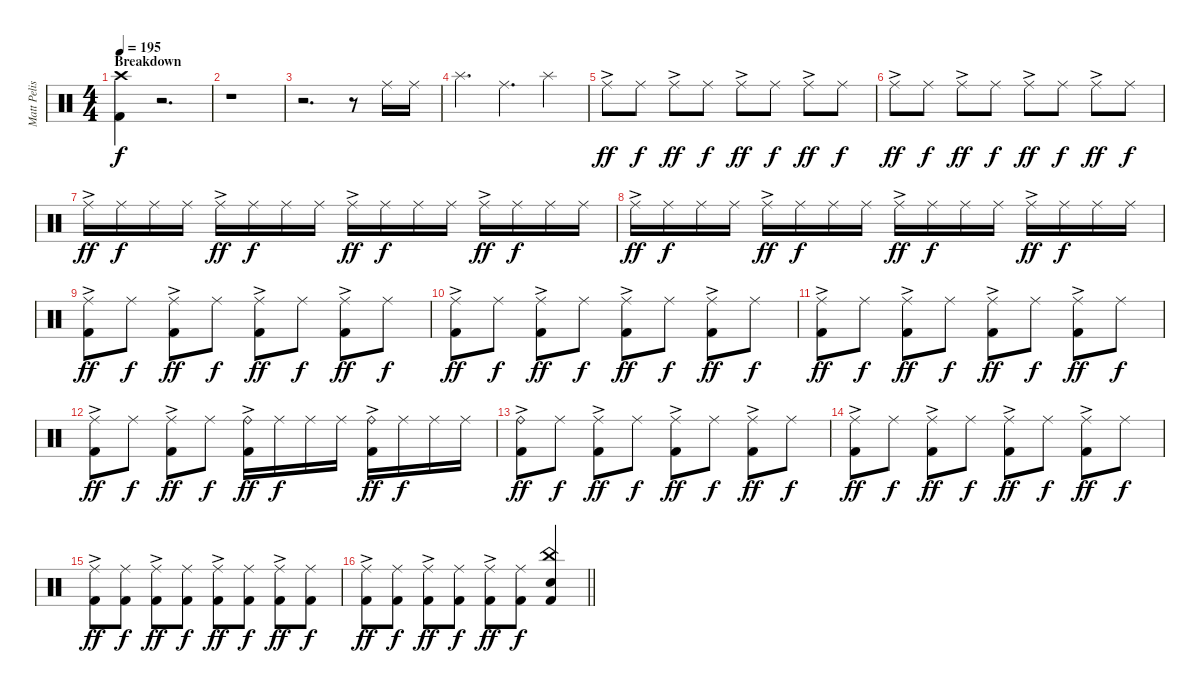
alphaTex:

\track ("Matt Pelissier" "Matt Pelis") {instrument percussion}
\staff {score}
\articulation defaults
\ts (4 4)
\section ("" "Breakdown")
\tempo 195
\clef neutral
\ks c
("Crash high (hit)" "Kick (hit) 2").4{dy f} r.2{d} |
r.1 |
r.2{d} r.8 "Ride (middle)".16 "Ride (middle)".16 |
"Splash (hit)".4{d} "Ride (middle)".4{d} "Splash (hit)".4 |
"Ride (middle)"{ac}.8{dy ff} "Ride (middle)".8{dy f} "Ride (middle)"{ac}.8{dy ff} "Ride (middle)".8{dy f} "Ride (middle)"{ac}.8{dy ff} "Ride (middle)".8{dy f} "Ride (middle)"{ac}.8{dy ff} "Ride (middle)".8{dy f} |
"Ride (middle)"{ac}.8{dy ff} "Ride (middle)".8{dy f} "Ride (middle)"{ac}.8{dy ff} "Ride (middle)".8{dy f} "Ride (middle)"{ac}.8{dy ff} "Ride (middle)".8{dy f} "Ride (middle)"{ac}.8{dy ff} "Ride (middle)".8{dy f} |
"Ride (middle)"{ac}.16{dy ff} "Ride (middle)".16{dy f} "Ride (middle)".16 "Ride (middle)".16 "Ride (middle)"{ac}.16{dy ff} "Ride (middle)".16{dy f} "Ride (middle)".16 "Ride (middle)".16 "Ride (middle)"{ac}.16{dy ff} "Ride (middle)".16{dy f} "Ride (middle)".16 "Ride (middle)".16 "Ride (middle)"{ac}.16{dy ff} "Ride (middle)".16{dy f} "Ride (middle)".16 "Ride (middle)".16 |
"Ride (middle)"{ac}.16{dy ff} "Ride (middle)".16{dy f} "Ride (middle)".16 "Ride (middle)".16 "Ride (middle)"{ac}.16{dy ff} "Ride (middle)".16{dy f} "Ride (middle)".16 "Ride (middle)".16 "Ride (middle)"{ac}.16{dy ff} "Ride (middle)".16{dy f} "Ride (middle)".16 "Ride (middle)".16 "Ride (middle)"{ac}.16{dy ff} "Ride (middle)".16{dy f} "Ride (middle)".16 "Ride (middle)".16 |
("Ride (middle)"{ac} "Kick (hit) 2").8{dy ff} "Ride (middle)".8{dy f} ("Ride (middle)"{ac} "Kick (hit) 2").8{dy ff} "Ride (middle)".8{dy f} ("Ride (middle)"{ac} "Kick (hit) 2").8{dy ff} "Ride (middle)".8{dy f} ("Ride (middle)"{ac} "Kick (hit) 2").8{dy ff} "Ride (middle)".8{dy f} |
("Ride (middle)"{ac} "Kick (hit) 2").8{dy ff} "Ride (middle)".8{dy f} ("Ride (middle)"{ac} "Kick (hit) 2").8{dy ff} "Ride (middle)".8{dy f} ("Ride (middle)"{ac} "Kick (hit) 2").8{dy ff} "Ride (middle)".8{dy f} ("Ride (middle)"{ac} "Kick (hit) 2").8{dy ff} "Ride (middle)".8{dy f} |
("Ride (middle)"{ac} "Kick (hit) 2").8{dy ff} "Ride (middle)".8{dy f} ("Ride (middle)"{ac} "Kick (hit) 2").8{dy ff} "Ride (middle)".8{dy f} ("Ride (middle)"{ac} "Kick (hit) 2").8{dy ff} "Ride (middle)".8{dy f} ("Ride (middle)"{ac} "Kick (hit) 2").8{dy ff} "Ride (middle)".8{dy f} |
("Ride (middle)"{ac} "Kick (hit) 2").8{dy ff} "Ride (middle)".8{dy f} ("Ride (middle)"{ac} "Kick (hit) 2").8{dy ff} "Ride (middle)".8{dy f} ("Ride (bell)"{ac} "Kick (hit) 2").16{dy ff} "Ride (middle)".16{dy f} "Ride (middle)".16 "Ride (middle)".16 ("Ride (bell)"{ac} "Kick (hit) 2").16{dy ff} "Ride (middle)".16{dy f} "Ride (middle)".16 "Ride (middle)".16 |
("Ride (bell)"{ac} "Kick (hit) 2").8{dy ff} "Ride (middle)".8{dy f} ("Ride (middle)"{ac} "Kick (hit) 2").8{dy ff} "Ride (middle)".8{dy f} ("Ride (middle)"{ac} "Kick (hit) 2").8{dy ff} "Ride (middle)".8{dy f} ("Ride (middle)"{ac} "Kick (hit) 2").8{dy ff} "Ride (middle)".8{dy f} |
("Ride (middle)"{ac} "Kick (hit) 2").8{dy ff} "Ride (middle)".8{dy f} ("Ride (middle)"{ac} "Kick (hit) 2").8{dy ff} "Ride (middle)".8{dy f} ("Ride (middle)"{ac} "Kick (hit) 2").8{dy ff} "Ride (middle)".8{dy f} ("Ride (middle)"{ac} "Kick (hit) 2").8{dy ff} "Ride (middle)".8{dy f} |
("Ride (middle)"{ac} "Kick (hit) 2").8{dy ff} ("Ride (middle)" "Kick (hit) 2").8{dy f} ("Ride (middle)"{ac} "Kick (hit) 2").8{dy ff} ("Ride (middle)" "Kick (hit) 2").8{dy f} ("Ride (middle)"{ac} "Kick (hit) 2").8{dy ff} ("Ride (middle)" "Kick (hit) 2").8{dy f} ("Ride (middle)"{ac} "Kick (hit) 2").8{dy ff} ("Ride (middle)" "Kick (hit) 2").8{dy f} |
\barLineRight lightlight
("Ride (middle)"{ac} "Kick (hit) 2").8{dy ff} ("Ride (middle)" "Kick (hit) 2").8{dy f} ("Ride (middle)"{ac} "Kick (hit) 2").8{dy ff} ("Ride (middle)" "Kick (hit) 2").8{dy f} ("Ride (middle)"{ac} "Kick (hit) 2").8{dy ff} ("Ride (middle)" "Kick (hit) 2").8{dy f} ("China (hit)" "Electric Snare (hit)" "Kick (hit) 2").4
